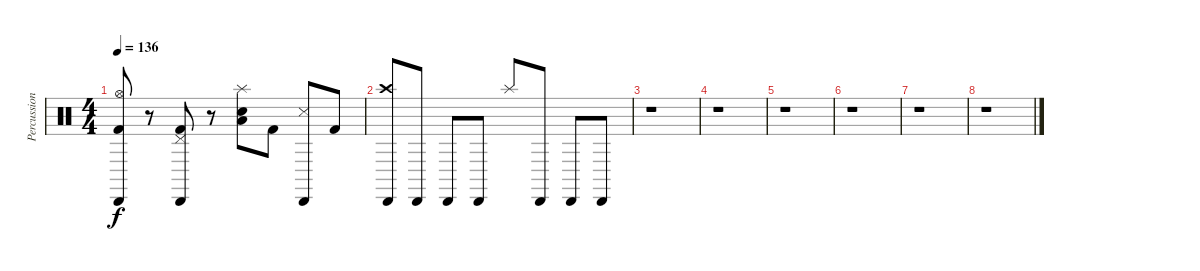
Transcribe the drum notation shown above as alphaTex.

\track ("Percussion 2" "Percussion") {instrument percussion}
\staff {score}
\articulation defaults
\ts (4 4)
\tempo 136
\clef neutral
\ks c
("Kick (hit) 2" "Hi-Hat (open)" "Cabasa (hit)").8{dy f} r.8 ("Kick (hit) 2" "Pedal Hi-Hat (hit)" "Cabasa (hit)").8 r.8 ("Snare (hit) 2" "Low Floor Tom (hit)" "Splash (hit)").8 "Kick (hit) 2".8 ("Snare (side stick) 3" "Cabasa (hit)").8 "Kick (hit) 2".8 |
("Crash high (hit)" "Cabasa (hit)").8 "Cabasa (hit)".8 "Cabasa (hit)".8 "Cabasa (hit)".8 "Splash (hit)".8 "Cabasa (hit)".8 "Cabasa (hit)".8 "Cabasa (hit)".8 |
r.1 |
r.1 |
r.1 |
r.1 |
r.1 |
r.1
